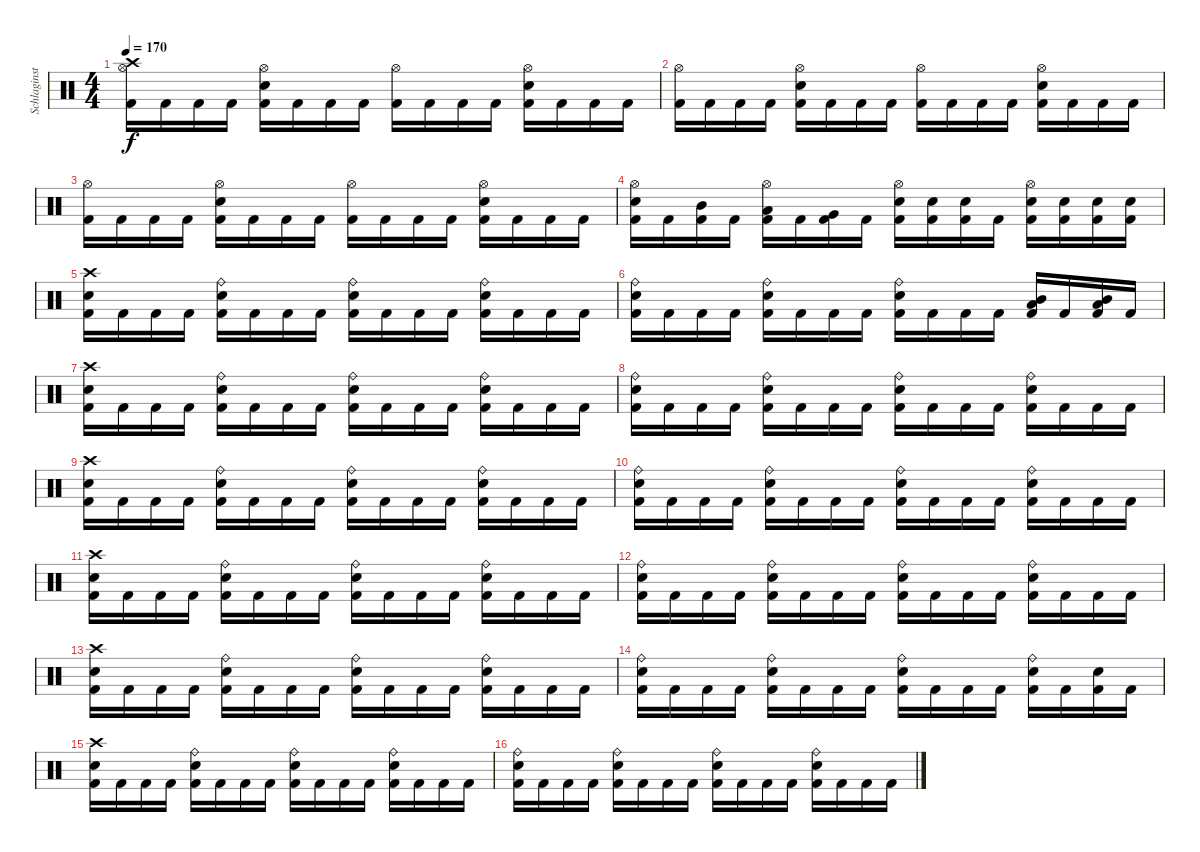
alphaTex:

\track ("Schlaginstrumente - Auswahl" "Schlaginst") {instrument percussion}
\staff {score}
\articulation defaults
\ts (4 4)
\tempo 170
\clef neutral
\ks c
("Crash high (hit)" "Hi-Hat (open)" "Kick (hit) 2").16{dy f} "Kick (hit) 2".16 "Kick (hit) 2".16 "Kick (hit) 2".16 ("Hi-Hat (open)" "Snare (hit) 2" "Kick (hit) 2").16 "Kick (hit) 2".16 "Kick (hit) 2".16 "Kick (hit) 2".16 ("Hi-Hat (open)" "Kick (hit) 2").16 "Kick (hit) 2".16 "Kick (hit) 2".16 "Kick (hit) 2".16 ("Hi-Hat (open)" "Snare (hit) 2" "Kick (hit) 2").16 "Kick (hit) 2".16 "Kick (hit) 2".16 "Kick (hit) 2".16 |
("Hi-Hat (open)" "Kick (hit) 2").16 "Kick (hit) 2".16 "Kick (hit) 2".16 "Kick (hit) 2".16 ("Hi-Hat (open)" "Snare (hit) 2" "Kick (hit) 2").16 "Kick (hit) 2".16 "Kick (hit) 2".16 "Kick (hit) 2".16 ("Hi-Hat (open)" "Kick (hit) 2").16 "Kick (hit) 2".16 "Kick (hit) 2".16 "Kick (hit) 2".16 ("Hi-Hat (open)" "Snare (hit) 2" "Kick (hit) 2").16 "Kick (hit) 2".16 "Kick (hit) 2".16 "Kick (hit) 2".16 |
("Hi-Hat (open)" "Kick (hit) 2").16 "Kick (hit) 2".16 "Kick (hit) 2".16 "Kick (hit) 2".16 ("Hi-Hat (open)" "Snare (hit) 2" "Kick (hit) 2").16 "Kick (hit) 2".16 "Kick (hit) 2".16 "Kick (hit) 2".16 ("Hi-Hat (open)" "Kick (hit) 2").16 "Kick (hit) 2".16 "Kick (hit) 2".16 "Kick (hit) 2".16 ("Hi-Hat (open)" "Snare (hit) 2" "Kick (hit) 2").16 "Kick (hit) 2".16 "Kick (hit) 2".16 "Kick (hit) 2".16 |
("Hi-Hat (open)" "Snare (hit) 2" "Kick (hit) 2").16 "Kick (hit) 2".16 ("Mid Tom (hit)" "Kick (hit) 2").16 "Kick (hit) 2".16 ("Hi-Hat (open)" "Low Tom (hit)" "Kick (hit) 2").16 "Kick (hit) 2".16 ("Very Low Tom (hit)" "Kick (hit) 2").16 "Kick (hit) 2".16 ("Hi-Hat (open)" "Snare (hit) 2" "Kick (hit) 2").16 ("Snare (hit) 2" "Kick (hit) 2").16 ("Snare (hit) 2" "Kick (hit) 2").16 "Kick (hit) 2".16 ("Hi-Hat (open)" "Snare (hit) 2" "Kick (hit) 2").16 ("Snare (hit) 2" "Kick (hit) 2").16 ("Snare (hit) 2" "Kick (hit) 2").16 ("Snare (hit) 2" "Kick (hit) 2").16 |
("Crash high (hit)" "Snare (hit) 2" "Kick (hit) 2").16 "Kick (hit) 2".16 "Kick (hit) 2".16 "Kick (hit) 2".16 ("Ride (bell)" "Snare (hit) 2" "Kick (hit) 2").16 "Kick (hit) 2".16 "Kick (hit) 2".16 "Kick (hit) 2".16 ("Ride (bell)" "Snare (hit) 2" "Kick (hit) 2").16 "Kick (hit) 2".16 "Kick (hit) 2".16 "Kick (hit) 2".16 ("Ride (bell)" "Snare (hit) 2" "Kick (hit) 2").16 "Kick (hit) 2".16 "Kick (hit) 2".16 "Kick (hit) 2".16 |
("Ride (bell)" "Snare (hit) 2" "Kick (hit) 2").16 "Kick (hit) 2".16 "Kick (hit) 2".16 "Kick (hit) 2".16 ("Ride (bell)" "Snare (hit) 2" "Kick (hit) 2").16 "Kick (hit) 2".16 "Kick (hit) 2".16 "Kick (hit) 2".16 ("Ride (bell)" "Snare (hit) 2" "Kick (hit) 2").16 "Kick (hit) 2".16 "Kick (hit) 2".16 "Kick (hit) 2".16 ("Low Tom (hit)" "Mid Tom (hit)" "Kick (hit) 2").16 "Kick (hit) 2".16 ("Low Tom (hit)" "Mid Tom (hit)" "Kick (hit) 2").16 "Kick (hit) 2".16 |
("Crash high (hit)" "Snare (hit) 2" "Kick (hit) 2").16 "Kick (hit) 2".16 "Kick (hit) 2".16 "Kick (hit) 2".16 ("Ride (bell)" "Snare (hit) 2" "Kick (hit) 2").16 "Kick (hit) 2".16 "Kick (hit) 2".16 "Kick (hit) 2".16 ("Ride (bell)" "Snare (hit) 2" "Kick (hit) 2").16 "Kick (hit) 2".16 "Kick (hit) 2".16 "Kick (hit) 2".16 ("Ride (bell)" "Snare (hit) 2" "Kick (hit) 2").16 "Kick (hit) 2".16 "Kick (hit) 2".16 "Kick (hit) 2".16 |
("Ride (bell)" "Snare (hit) 2" "Kick (hit) 2").16 "Kick (hit) 2".16 "Kick (hit) 2".16 "Kick (hit) 2".16 ("Ride (bell)" "Snare (hit) 2" "Kick (hit) 2").16 "Kick (hit) 2".16 "Kick (hit) 2".16 "Kick (hit) 2".16 ("Ride (bell)" "Snare (hit) 2" "Kick (hit) 2").16 "Kick (hit) 2".16 "Kick (hit) 2".16 "Kick (hit) 2".16 ("Ride (bell)" "Snare (hit) 2" "Kick (hit) 2").16 "Kick (hit) 2".16 "Kick (hit) 2".16 "Kick (hit) 2".16 |
("Crash high (hit)" "Snare (hit) 2" "Kick (hit) 2").16 "Kick (hit) 2".16 "Kick (hit) 2".16 "Kick (hit) 2".16 ("Ride (bell)" "Snare (hit) 2" "Kick (hit) 2").16 "Kick (hit) 2".16 "Kick (hit) 2".16 "Kick (hit) 2".16 ("Ride (bell)" "Snare (hit) 2" "Kick (hit) 2").16 "Kick (hit) 2".16 "Kick (hit) 2".16 "Kick (hit) 2".16 ("Ride (bell)" "Snare (hit) 2" "Kick (hit) 2").16 "Kick (hit) 2".16 "Kick (hit) 2".16 "Kick (hit) 2".16 |
("Ride (bell)" "Snare (hit) 2" "Kick (hit) 2").16 "Kick (hit) 2".16 "Kick (hit) 2".16 "Kick (hit) 2".16 ("Ride (bell)" "Snare (hit) 2" "Kick (hit) 2").16 "Kick (hit) 2".16 "Kick (hit) 2".16 "Kick (hit) 2".16 ("Ride (bell)" "Snare (hit) 2" "Kick (hit) 2").16 "Kick (hit) 2".16 "Kick (hit) 2".16 "Kick (hit) 2".16 ("Ride (bell)" "Snare (hit) 2" "Kick (hit) 2").16 "Kick (hit) 2".16 "Kick (hit) 2".16 "Kick (hit) 2".16 |
("Crash high (hit)" "Snare (hit) 2" "Kick (hit) 2").16 "Kick (hit) 2".16 "Kick (hit) 2".16 "Kick (hit) 2".16 ("Ride (bell)" "Snare (hit) 2" "Kick (hit) 2").16 "Kick (hit) 2".16 "Kick (hit) 2".16 "Kick (hit) 2".16 ("Ride (bell)" "Snare (hit) 2" "Kick (hit) 2").16 "Kick (hit) 2".16 "Kick (hit) 2".16 "Kick (hit) 2".16 ("Ride (bell)" "Snare (hit) 2" "Kick (hit) 2").16 "Kick (hit) 2".16 "Kick (hit) 2".16 "Kick (hit) 2".16 |
("Ride (bell)" "Snare (hit) 2" "Kick (hit) 2").16 "Kick (hit) 2".16 "Kick (hit) 2".16 "Kick (hit) 2".16 ("Ride (bell)" "Snare (hit) 2" "Kick (hit) 2").16 "Kick (hit) 2".16 "Kick (hit) 2".16 "Kick (hit) 2".16 ("Ride (bell)" "Snare (hit) 2" "Kick (hit) 2").16 "Kick (hit) 2".16 "Kick (hit) 2".16 "Kick (hit) 2".16 ("Ride (bell)" "Snare (hit) 2" "Kick (hit) 2").16 "Kick (hit) 2".16 "Kick (hit) 2".16 "Kick (hit) 2".16 |
("Crash high (hit)" "Snare (hit) 2" "Kick (hit) 2").16 "Kick (hit) 2".16 "Kick (hit) 2".16 "Kick (hit) 2".16 ("Ride (bell)" "Snare (hit) 2" "Kick (hit) 2").16 "Kick (hit) 2".16 "Kick (hit) 2".16 "Kick (hit) 2".16 ("Ride (bell)" "Snare (hit) 2" "Kick (hit) 2").16 "Kick (hit) 2".16 "Kick (hit) 2".16 "Kick (hit) 2".16 ("Ride (bell)" "Snare (hit) 2" "Kick (hit) 2").16 "Kick (hit) 2".16 "Kick (hit) 2".16 "Kick (hit) 2".16 |
("Ride (bell)" "Snare (hit) 2" "Kick (hit) 2").16 "Kick (hit) 2".16 "Kick (hit) 2".16 "Kick (hit) 2".16 ("Ride (bell)" "Snare (hit) 2" "Kick (hit) 2").16 "Kick (hit) 2".16 "Kick (hit) 2".16 "Kick (hit) 2".16 ("Ride (bell)" "Snare (hit) 2" "Kick (hit) 2").16 "Kick (hit) 2".16 "Kick (hit) 2".16 "Kick (hit) 2".16 ("Ride (bell)" "Snare (hit) 2" "Kick (hit) 2").16 "Kick (hit) 2".16 ("Snare (hit) 2" "Kick (hit) 2").16 "Kick (hit) 2".16 |
("Crash high (hit)" "Snare (hit) 2" "Kick (hit) 2").16 "Kick (hit) 2".16 "Kick (hit) 2".16 "Kick (hit) 2".16 ("Ride (bell)" "Snare (hit) 2" "Kick (hit) 2").16 "Kick (hit) 2".16 "Kick (hit) 2".16 "Kick (hit) 2".16 ("Ride (bell)" "Snare (hit) 2" "Kick (hit) 2").16 "Kick (hit) 2".16 "Kick (hit) 2".16 "Kick (hit) 2".16 ("Ride (bell)" "Snare (hit) 2" "Kick (hit) 2").16 "Kick (hit) 2".16 "Kick (hit) 2".16 "Kick (hit) 2".16 |
("Ride (bell)" "Snare (hit) 2" "Kick (hit) 2").16 "Kick (hit) 2".16 "Kick (hit) 2".16 "Kick (hit) 2".16 ("Ride (bell)" "Snare (hit) 2" "Kick (hit) 2").16 "Kick (hit) 2".16 "Kick (hit) 2".16 "Kick (hit) 2".16 ("Ride (bell)" "Snare (hit) 2" "Kick (hit) 2").16 "Kick (hit) 2".16 "Kick (hit) 2".16 "Kick (hit) 2".16 ("Ride (bell)" "Snare (hit) 2" "Kick (hit) 2").16 "Kick (hit) 2".16 "Kick (hit) 2".16 "Kick (hit) 2".16
